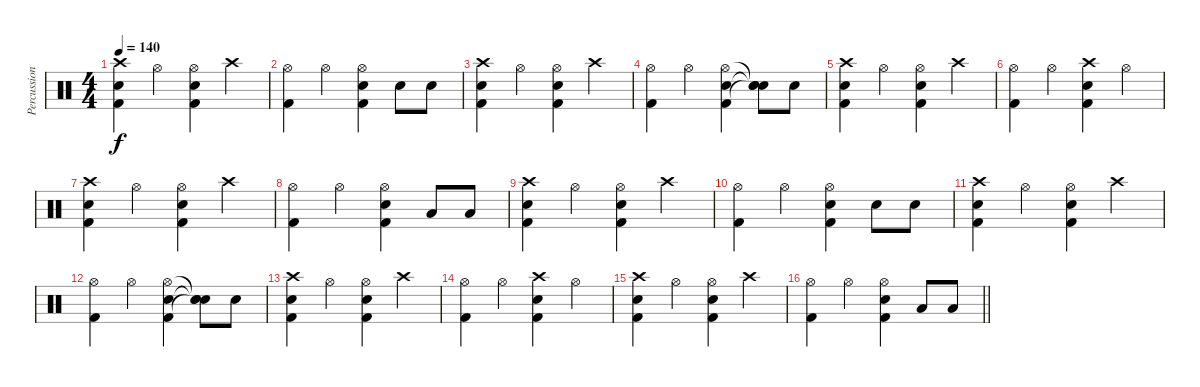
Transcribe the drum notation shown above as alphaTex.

\track ("Percussion" "Percussion") {instrument percussion}
\staff {score}
\articulation defaults
\ts (4 4)
\tempo 140
\clef neutral
\ks c
("Crash high (hit)" "Snare (hit) 2" "Kick (hit) 2").4{dy f} "Hi-Hat (open)".4 ("Hi-Hat (open)" "Snare (hit) 2" "Kick (hit) 2").4 "Crash high (hit)".4 |
("Hi-Hat (open)" "Kick (hit) 2").4 "Hi-Hat (open)".4 ("Hi-Hat (open)" "Snare (hit) 2" "Kick (hit) 2").4 "Snare (hit) 2".8 "Snare (hit) 2".8 |
("Crash high (hit)" "Snare (hit) 2" "Kick (hit) 2").4 "Hi-Hat (open)".4 ("Hi-Hat (open)" "Snare (hit) 2" "Kick (hit) 2").4 "Crash high (hit)".4 |
("Hi-Hat (open)" "Kick (hit) 2").4 "Hi-Hat (open)".4 ("Hi-Hat (open)" "Snare (hit) 2" "Kick (hit) 2").4 ("Snare (hit)"{t} "Snare (hit) 2"{t} "Snare (hit)"{t}).8 "Snare (hit) 2".8 |
("Crash high (hit)" "Snare (hit) 2" "Kick (hit) 2").4 "Hi-Hat (open)".4 ("Hi-Hat (open)" "Snare (hit) 2" "Kick (hit) 2").4 "Crash high (hit)".4 |
("Hi-Hat (open)" "Kick (hit) 2").4 "Hi-Hat (open)".4 ("Crash high (hit)" "Snare (hit) 2" "Kick (hit) 2").4 "Hi-Hat (open)".4 |
("Crash high (hit)" "Snare (hit) 2" "Kick (hit) 2").4 "Hi-Hat (open)".4 ("Hi-Hat (open)" "Snare (hit) 2" "Kick (hit) 2").4 "Crash high (hit)".4 |
("Hi-Hat (open)" "Kick (hit) 2").4 "Hi-Hat (open)".4 ("Hi-Hat (open)" "Snare (hit) 2" "Kick (hit) 2").4 "Low Floor Tom (hit)".8 "Low Floor Tom (hit)".8 |
("Crash high (hit)" "Snare (hit) 2" "Kick (hit) 2").4 "Hi-Hat (open)".4 ("Hi-Hat (open)" "Snare (hit) 2" "Kick (hit) 2").4 "Crash high (hit)".4 |
("Hi-Hat (open)" "Kick (hit) 2").4 "Hi-Hat (open)".4 ("Hi-Hat (open)" "Snare (hit) 2" "Kick (hit) 2").4 "Snare (hit) 2".8 "Snare (hit) 2".8 |
("Crash high (hit)" "Snare (hit) 2" "Kick (hit) 2").4 "Hi-Hat (open)".4 ("Hi-Hat (open)" "Snare (hit) 2" "Kick (hit) 2").4 "Crash high (hit)".4 |
("Hi-Hat (open)" "Kick (hit) 2").4 "Hi-Hat (open)".4 ("Hi-Hat (open)" "Snare (hit) 2" "Kick (hit) 2").4 ("Snare (hit)"{t} "Snare (hit) 2"{t} "Snare (hit)"{t}).8 "Snare (hit) 2".8 |
("Crash high (hit)" "Snare (hit) 2" "Kick (hit) 2").4 "Hi-Hat (open)".4 ("Hi-Hat (open)" "Snare (hit) 2" "Kick (hit) 2").4 "Crash high (hit)".4 |
("Hi-Hat (open)" "Kick (hit) 2").4 "Hi-Hat (open)".4 ("Crash high (hit)" "Snare (hit) 2" "Kick (hit) 2").4 "Hi-Hat (open)".4 |
("Crash high (hit)" "Snare (hit) 2" "Kick (hit) 2").4 "Hi-Hat (open)".4 ("Hi-Hat (open)" "Snare (hit) 2" "Kick (hit) 2").4 "Crash high (hit)".4 |
\barLineRight lightlight
("Hi-Hat (open)" "Kick (hit) 2").4 "Hi-Hat (open)".4 ("Hi-Hat (open)" "Snare (hit) 2" "Kick (hit) 2").4 "Low Floor Tom (hit)".8 "Low Floor Tom (hit)".8
